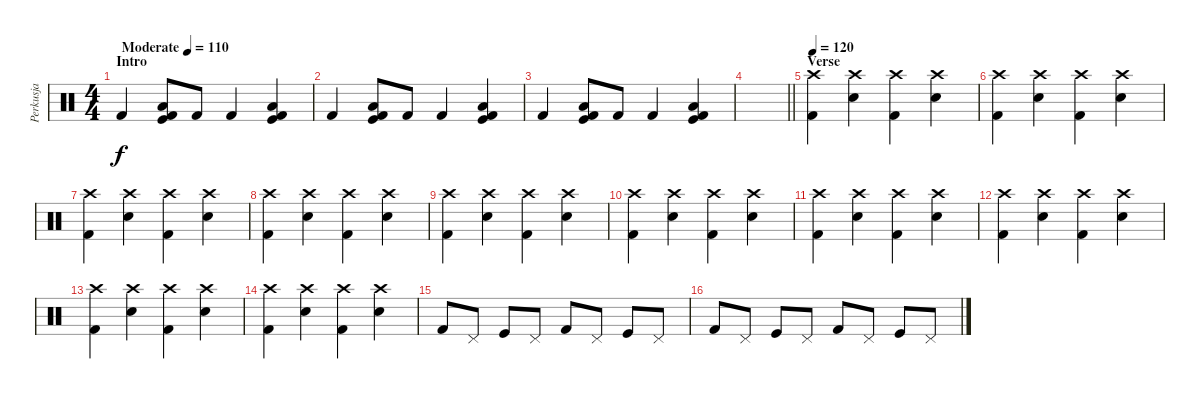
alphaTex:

\track ("Perkusja" "Perkusja") {instrument percussion}
\staff {score}
\articulation defaults
\ts (4 4)
\section ("" "Intro")
\tempo (110 "Moderate")
\clef neutral
\ks c "Kick (hit) 2".4{dy f}
("Low Tom (hit)" "Kick (hit)" "Kick (hit) 2").8 "Kick (hit) 2".8 "Kick (hit) 2".4 ("Low Tom (hit)" "Kick (hit)" "Kick (hit) 2").4 |
"Kick (hit) 2".4 ("Low Tom (hit)" "Kick (hit)" "Kick (hit) 2").8 "Kick (hit) 2".8 "Kick (hit) 2".4 ("Low Tom (hit)" "Kick (hit)" "Kick (hit) 2").4 |
"Kick (hit) 2".4 ("Low Tom (hit)" "Kick (hit)" "Kick (hit) 2").8 "Kick (hit) 2".8 "Kick (hit) 2".4 ("Low Tom (hit)" "Kick (hit)" "Kick (hit) 2").4 |
\barLineRight lightlight
|
\section ("" "Verse")
\tempo 120
("Crash high (hit)" "Kick (hit) 2").4 ("Crash high (hit)" "Snare (hit) 2").4 ("Crash high (hit)" "Kick (hit) 2").4 ("Crash high (hit)" "Snare (hit) 2").4 |
("Crash high (hit)" "Kick (hit) 2").4 ("Crash high (hit)" "Snare (hit) 2").4 ("Crash high (hit)" "Kick (hit) 2").4 ("Crash high (hit)" "Snare (hit) 2").4 |
("Crash high (hit)" "Kick (hit) 2").4 ("Crash high (hit)" "Snare (hit) 2").4 ("Crash high (hit)" "Kick (hit) 2").4 ("Crash high (hit)" "Snare (hit) 2").4 |
("Crash high (hit)" "Kick (hit) 2").4 ("Crash high (hit)" "Snare (hit) 2").4 ("Crash high (hit)" "Kick (hit) 2").4 ("Crash high (hit)" "Snare (hit) 2").4 |
("Crash high (hit)" "Kick (hit) 2").4 ("Crash high (hit)" "Snare (hit) 2").4 ("Crash high (hit)" "Kick (hit) 2").4 ("Crash high (hit)" "Snare (hit) 2").4 |
("Crash high (hit)" "Kick (hit) 2").4 ("Crash high (hit)" "Snare (hit) 2").4 ("Crash high (hit)" "Kick (hit) 2").4 ("Crash high (hit)" "Snare (hit) 2").4 |
("Crash high (hit)" "Kick (hit) 2").4 ("Crash high (hit)" "Snare (hit) 2").4 ("Crash high (hit)" "Kick (hit) 2").4 ("Crash high (hit)" "Snare (hit) 2").4 |
("Crash high (hit)" "Kick (hit) 2").4 ("Crash high (hit)" "Snare (hit) 2").4 ("Crash high (hit)" "Kick (hit) 2").4 ("Crash high (hit)" "Snare (hit) 2").4 |
("Crash high (hit)" "Kick (hit) 2").4 ("Crash high (hit)" "Snare (hit) 2").4 ("Crash high (hit)" "Kick (hit) 2").4 ("Crash high (hit)" "Snare (hit) 2").4 |
("Crash high (hit)" "Kick (hit) 2").4 ("Crash high (hit)" "Snare (hit) 2").4 ("Crash high (hit)" "Kick (hit) 2").4 ("Crash high (hit)" "Snare (hit) 2").4 |
"Kick (hit) 2".8 "Pedal Hi-Hat (hit)".8 "Kick (hit)".8 "Pedal Hi-Hat (hit)".8 "Kick (hit) 2".8 "Pedal Hi-Hat (hit)".8 "Kick (hit)".8 "Pedal Hi-Hat (hit)".8 |
"Kick (hit) 2".8 "Pedal Hi-Hat (hit)".8 "Kick (hit)".8 "Pedal Hi-Hat (hit)".8 "Kick (hit) 2".8 "Pedal Hi-Hat (hit)".8 "Kick (hit)".8 "Pedal Hi-Hat (hit)".8
